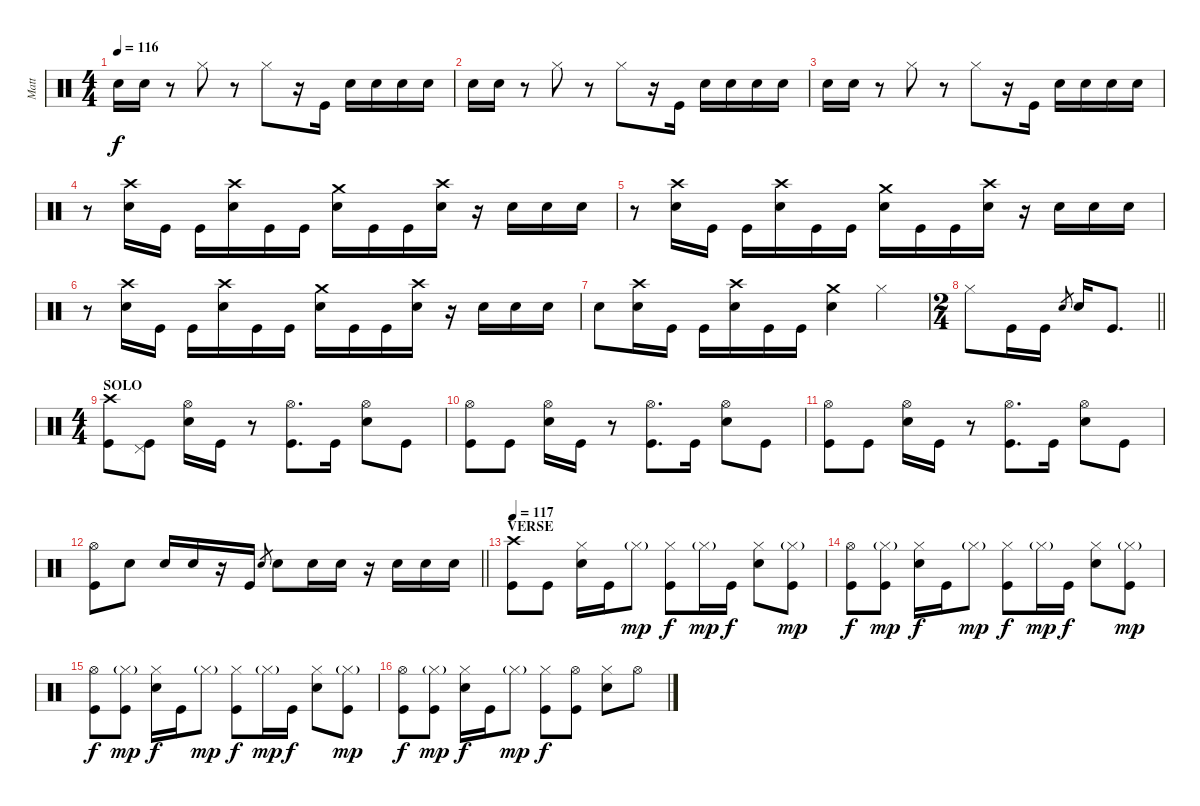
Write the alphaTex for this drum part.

\track ("Matt" "Matt") {instrument percussion}
\staff {score}
\articulation defaults
\ts (4 4)
\tempo 116
\clef neutral
\ks c "Snare (hit) 2".16{dy f} "Snare (hit) 2".16
r.8 "Hi-Hat (closed)".8 r.8 "Hi-Hat (closed)".8 r.16 "Kick (hit)".16 "Snare (hit) 2".16 "Snare (hit) 2".16 "Snare (hit) 2".16 "Snare (hit) 2".16 |
"Snare (hit) 2".16 "Snare (hit) 2".16 r.8 "Hi-Hat (closed)".8 r.8 "Hi-Hat (closed)".8 r.16 "Kick (hit)".16 "Snare (hit) 2".16 "Snare (hit) 2".16 "Snare (hit) 2".16 "Snare (hit) 2".16 |
"Snare (hit) 2".16 "Snare (hit) 2".16 r.8 "Hi-Hat (closed)".8 r.8 "Hi-Hat (closed)".8 r.16 "Kick (hit)".16 "Snare (hit) 2".16 "Snare (hit) 2".16 "Snare (hit) 2".16 "Snare (hit) 2".16 |
r.8 ("Crash high (hit)" "Snare (hit) 2").16 "Kick (hit)".16 "Kick (hit)".16 ("Snare (hit) 2" "Crash high (hit)").16 "Kick (hit)".16 "Kick (hit)".16 ("Crash medium (hit)" "Snare (hit) 2").16 "Kick (hit)".16 "Kick (hit)".16 ("Snare (hit) 2" "Crash high (hit)").16 r.16 "Snare (hit) 2".16 "Snare (hit) 2".16 "Snare (hit) 2".16 |
r.8 ("Crash high (hit)" "Snare (hit) 2").16 "Kick (hit)".16 "Kick (hit)".16 ("Snare (hit) 2" "Crash high (hit)").16 "Kick (hit)".16 "Kick (hit)".16 ("Crash medium (hit)" "Snare (hit) 2").16 "Kick (hit)".16 "Kick (hit)".16 ("Snare (hit) 2" "Crash high (hit)").16 r.16 "Snare (hit) 2".16 "Snare (hit) 2".16 "Snare (hit) 2".16 |
r.8 ("Crash high (hit)" "Snare (hit) 2").16 "Kick (hit)".16 "Kick (hit)".16 ("Snare (hit) 2" "Crash high (hit)").16 "Kick (hit)".16 "Kick (hit)".16 ("Crash medium (hit)" "Snare (hit) 2").16 "Kick (hit)".16 "Kick (hit)".16 ("Snare (hit) 2" "Crash high (hit)").16 r.16 "Snare (hit) 2".16 "Snare (hit) 2".16 "Snare (hit) 2".16 |
"Snare (hit) 2".8 ("Crash high (hit)" "Snare (hit) 2").16 "Kick (hit)".16 "Kick (hit)".16 ("Snare (hit) 2" "Crash high (hit)").16 "Kick (hit)".16 "Kick (hit)".16 ("Crash medium (hit)" "Snare (hit) 2").4 "Hi-Hat (closed)".4 |
\ts (2 4)
\barLineRight lightlight "Hi-Hat (closed)".8 "Kick (hit)".16 "Kick (hit)".16 "Snare (hit) 2".8{gr} "Snare (hit) 2".16 "Kick (hit)".8{d}
|
\ts (4 4)
\section ("" "SOLO")
("Crash high (hit)" "Kick (hit)").8 ("Kick (hit)" "Pedal Hi-Hat (hit)").8 ("Snare (hit) 2" "Hi-Hat (open)").16 "Kick (hit)".16 r.8 ("Kick (hit)" "Hi-Hat (open)").8{d} "Kick (hit)".16 ("Snare (hit) 2" "Hi-Hat (open)").8 "Kick (hit)".8 |
("Kick (hit)" "Hi-Hat (open)").8 "Kick (hit)".8 ("Snare (hit) 2" "Hi-Hat (open)").16 "Kick (hit)".16 r.8 ("Kick (hit)" "Hi-Hat (open)").8{d} "Kick (hit)".16 ("Snare (hit) 2" "Hi-Hat (open)").8 "Kick (hit)".8 |
("Kick (hit)" "Hi-Hat (open)").8 "Kick (hit)".8 ("Snare (hit) 2" "Hi-Hat (open)").16 "Kick (hit)".16 r.8 ("Kick (hit)" "Hi-Hat (open)").8{d} "Kick (hit)".16 ("Snare (hit) 2" "Hi-Hat (open)").8 "Kick (hit)".8 |
\barLineRight lightlight
("Kick (hit)" "Hi-Hat (open)").8 "Snare (hit) 2".8 "Snare (hit) 2".16 "Snare (hit) 2".16 r.16 "Kick (hit)".16 "Snare (hit) 2".8{gr} "Snare (hit) 2".8 "Snare (hit) 2".16 "Snare (hit) 2".16 r.16 "Snare (hit) 2".16 "Snare (hit) 2".16 "Snare (hit) 2".16 |
\section ("" "VERSE")
\tempo 117
("Crash high (hit)" "Kick (hit)").8 "Kick (hit)".8 ("Snare (hit) 2" "Hi-Hat (closed)").16 "Kick (hit)".16 "Hi-Hat (closed)"{g}.8{dy mp} ("Kick (hit)" "Hi-Hat (closed)").8{dy f} "Hi-Hat (closed)"{g}.16{dy mp} "Kick (hit)".16{dy f} ("Snare (hit) 2" "Hi-Hat (closed)").8 ("Kick (hit)" "Hi-Hat (closed)"{g}).8{dy mp} |
("Kick (hit)" "Hi-Hat (open)").8{dy f} ("Kick (hit)" "Hi-Hat (closed)"{g}).8{dy mp} ("Snare (hit) 2" "Hi-Hat (closed)").16{dy f} "Kick (hit)".16 "Hi-Hat (closed)"{g}.8{dy mp} ("Kick (hit)" "Hi-Hat (closed)").8{dy f} "Hi-Hat (closed)"{g}.16{dy mp} "Kick (hit)".16{dy f} ("Snare (hit) 2" "Hi-Hat (closed)").8 ("Kick (hit)" "Hi-Hat (closed)"{g}).8{dy mp} |
("Kick (hit)" "Hi-Hat (open)").8{dy f} ("Kick (hit)" "Hi-Hat (closed)"{g}).8{dy mp} ("Snare (hit) 2" "Hi-Hat (closed)").16{dy f} "Kick (hit)".16 "Hi-Hat (closed)"{g}.8{dy mp} ("Kick (hit)" "Hi-Hat (closed)").8{dy f} "Hi-Hat (closed)"{g}.16{dy mp} "Kick (hit)".16{dy f} ("Snare (hit) 2" "Hi-Hat (closed)").8 ("Kick (hit)" "Hi-Hat (closed)"{g}).8{dy mp} |
("Kick (hit)" "Hi-Hat (open)").8{dy f} ("Kick (hit)" "Hi-Hat (closed)"{g}).8{dy mp} ("Snare (hit) 2" "Hi-Hat (closed)").16{dy f} "Kick (hit)".16 "Hi-Hat (closed)"{g}.8{dy mp} ("Kick (hit)" "Hi-Hat (closed)").8{dy f} ("Kick (hit)" "Hi-Hat (open)").8 ("Snare (hit) 2" "Hi-Hat (closed)").8 "Hi-Hat (open)".8
